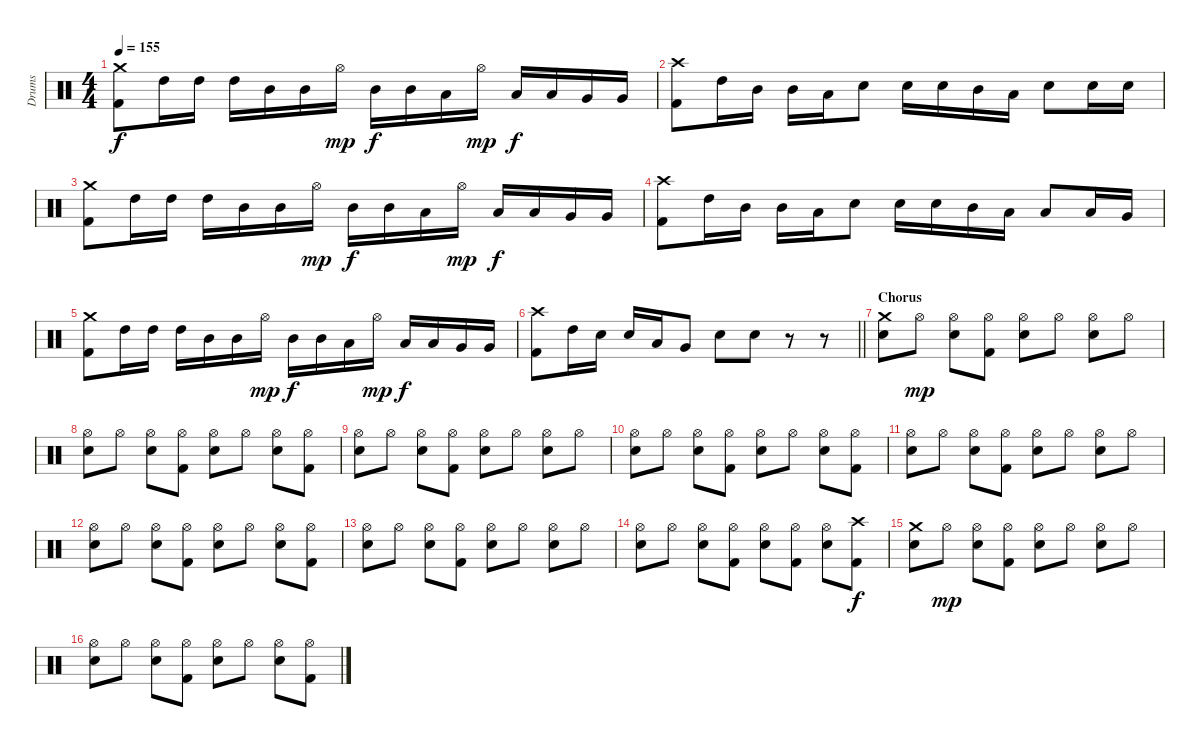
\track ("Drums" "Drums") {instrument percussion}
\staff {score}
\articulation defaults
\ts (4 4)
\tempo 155
\clef neutral
\ks c
("Crash medium (hit)" "Kick (hit) 2").8{dy f} "High Tom (hit)".16 "High Tom (hit)".16 "High Tom (hit)".16 "Mid Tom (hit)".16 "Mid Tom (hit)".16 "Hi-Hat (open)".16{dy mp} "Mid Tom (hit)".16{dy f} "Mid Tom (hit)".16 "Low Tom (hit)".16 "Hi-Hat (open)".16{dy mp} "Low Tom (hit)".16{dy f} "Low Tom (hit)".16 "Very Low Tom (hit)".16 "Very Low Tom (hit)".16 |
("Crash high (hit)" "Kick (hit) 2").8 "High Tom (hit)".16 "Mid Tom (hit)".16 "Mid Tom (hit)".16 "Low Tom (hit)".16 "Snare (hit) 2".8 "Snare (hit) 2".16 "Snare (hit) 2".16 "Mid Tom (hit)".16 "Low Tom (hit)".16 "Snare (hit) 2".8 "Snare (hit) 2".16 "Snare (hit) 2".16 |
("Crash medium (hit)" "Kick (hit) 2").8 "High Tom (hit)".16 "High Tom (hit)".16 "High Tom (hit)".16 "Mid Tom (hit)".16 "Mid Tom (hit)".16 "Hi-Hat (open)".16{dy mp} "Mid Tom (hit)".16{dy f} "Mid Tom (hit)".16 "Low Tom (hit)".16 "Hi-Hat (open)".16{dy mp} "Low Tom (hit)".16{dy f} "Low Tom (hit)".16 "Very Low Tom (hit)".16 "Very Low Tom (hit)".16 |
("Crash high (hit)" "Kick (hit) 2").8 "High Tom (hit)".16 "Mid Tom (hit)".16 "Mid Tom (hit)".16 "Low Tom (hit)".16 "Snare (hit) 2".8 "Snare (hit) 2".16 "Snare (hit) 2".16 "Mid Tom (hit)".16 "Low Tom (hit)".16 "Low Tom (hit)".8 "Low Tom (hit)".16 "Very Low Tom (hit)".16 |
("Crash medium (hit)" "Kick (hit) 2").8 "High Tom (hit)".16 "High Tom (hit)".16 "High Tom (hit)".16 "Mid Tom (hit)".16 "Mid Tom (hit)".16 "Hi-Hat (open)".16{dy mp} "Mid Tom (hit)".16{dy f} "Mid Tom (hit)".16 "Low Tom (hit)".16 "Hi-Hat (open)".16{dy mp} "Low Tom (hit)".16{dy f} "Low Tom (hit)".16 "Very Low Tom (hit)".16 "Very Low Tom (hit)".16 |
\barLineRight lightlight
("Crash high (hit)" "Kick (hit) 2").8 "High Tom (hit)".16 "Snare (hit) 2".16 "Snare (hit) 2".16 "Low Tom (hit)".16 "Very Low Tom (hit)".8 "Snare (hit) 2".8 "Snare (hit) 2".8 r.8 r.8 |
\section ("" "Chorus")
("Crash medium (hit)" "Snare (hit) 2").8 "Hi-Hat (open)".8{dy mp} ("Hi-Hat (open)" "Snare (hit) 2").8 ("Hi-Hat (open)" "Kick (hit) 2").8 ("Hi-Hat (open)" "Snare (hit) 2").8 "Hi-Hat (open)".8 ("Hi-Hat (open)" "Snare (hit) 2").8 "Hi-Hat (open)".8 |
("Hi-Hat (open)" "Snare (hit) 2").8 "Hi-Hat (open)".8 ("Hi-Hat (open)" "Snare (hit) 2").8 ("Hi-Hat (open)" "Kick (hit) 2").8 ("Hi-Hat (open)" "Snare (hit) 2").8 "Hi-Hat (open)".8 ("Hi-Hat (open)" "Snare (hit) 2").8 ("Hi-Hat (open)" "Kick (hit) 2").8 |
("Hi-Hat (open)" "Snare (hit) 2").8 "Hi-Hat (open)".8 ("Hi-Hat (open)" "Snare (hit) 2").8 ("Hi-Hat (open)" "Kick (hit) 2").8 ("Hi-Hat (open)" "Snare (hit) 2").8 "Hi-Hat (open)".8 ("Hi-Hat (open)" "Snare (hit) 2").8 "Hi-Hat (open)".8 |
("Hi-Hat (open)" "Snare (hit) 2").8 "Hi-Hat (open)".8 ("Hi-Hat (open)" "Snare (hit) 2").8 ("Hi-Hat (open)" "Kick (hit) 2").8 ("Hi-Hat (open)" "Snare (hit) 2").8 "Hi-Hat (open)".8 ("Hi-Hat (open)" "Snare (hit) 2").8 ("Hi-Hat (open)" "Kick (hit) 2").8 |
("Hi-Hat (open)" "Snare (hit) 2").8 "Hi-Hat (open)".8 ("Hi-Hat (open)" "Snare (hit) 2").8 ("Hi-Hat (open)" "Kick (hit) 2").8 ("Hi-Hat (open)" "Snare (hit) 2").8 "Hi-Hat (open)".8 ("Hi-Hat (open)" "Snare (hit) 2").8 "Hi-Hat (open)".8 |
("Hi-Hat (open)" "Snare (hit) 2").8 "Hi-Hat (open)".8 ("Hi-Hat (open)" "Snare (hit) 2").8 ("Hi-Hat (open)" "Kick (hit) 2").8 ("Hi-Hat (open)" "Snare (hit) 2").8 "Hi-Hat (open)".8 ("Hi-Hat (open)" "Snare (hit) 2").8 ("Hi-Hat (open)" "Kick (hit) 2").8 |
("Hi-Hat (open)" "Snare (hit) 2").8 "Hi-Hat (open)".8 ("Hi-Hat (open)" "Snare (hit) 2").8 ("Hi-Hat (open)" "Kick (hit) 2").8 ("Hi-Hat (open)" "Snare (hit) 2").8 "Hi-Hat (open)".8 ("Hi-Hat (open)" "Snare (hit) 2").8 "Hi-Hat (open)".8 |
("Hi-Hat (open)" "Snare (hit) 2").8 "Hi-Hat (open)".8 ("Hi-Hat (open)" "Snare (hit) 2").8 ("Hi-Hat (open)" "Kick (hit) 2").8 ("Hi-Hat (open)" "Snare (hit) 2").8 ("Hi-Hat (open)" "Kick (hit) 2").8 ("Hi-Hat (open)" "Snare (hit) 2").8 ("Crash high (hit)" "Kick (hit) 2").8{dy f} |
("Crash medium (hit)" "Snare (hit) 2").8 "Hi-Hat (open)".8{dy mp} ("Hi-Hat (open)" "Snare (hit) 2").8 ("Hi-Hat (open)" "Kick (hit) 2").8 ("Hi-Hat (open)" "Snare (hit) 2").8 "Hi-Hat (open)".8 ("Hi-Hat (open)" "Snare (hit) 2").8 "Hi-Hat (open)".8 |
("Hi-Hat (open)" "Snare (hit) 2").8 "Hi-Hat (open)".8 ("Hi-Hat (open)" "Snare (hit) 2").8 ("Hi-Hat (open)" "Kick (hit) 2").8 ("Hi-Hat (open)" "Snare (hit) 2").8 "Hi-Hat (open)".8 ("Hi-Hat (open)" "Snare (hit) 2").8 ("Hi-Hat (open)" "Kick (hit) 2").8
